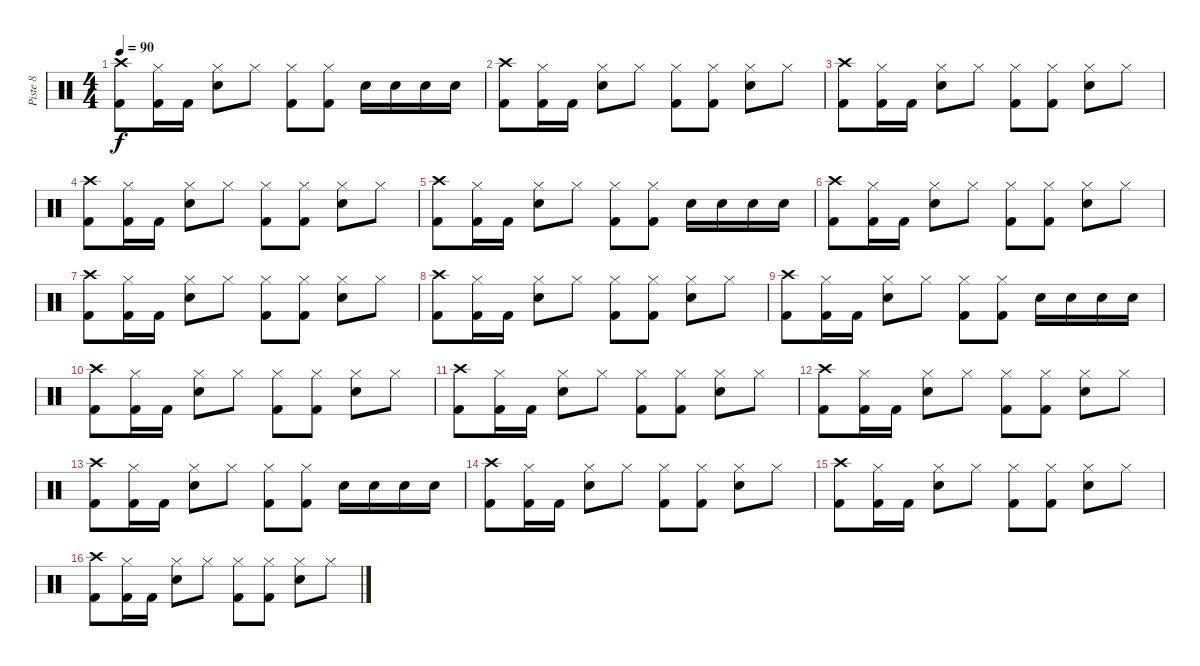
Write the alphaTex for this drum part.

\track ("Piste 8" "Piste 8") {instrument percussion}
\staff {score}
\articulation defaults
\ts (4 4)
\tempo 90
\clef neutral
\ks c
("Crash high (hit)" "Kick (hit) 2").8{dy f} ("Hi-Hat (closed)" "Kick (hit) 2").16 "Kick (hit) 2".16 ("Hi-Hat (closed)" "Snare (hit) 2").8 "Hi-Hat (closed)".8 ("Hi-Hat (closed)" "Kick (hit) 2").8 ("Hi-Hat (closed)" "Kick (hit) 2").8 "Snare (hit) 2".16 "Snare (hit) 2".16 "Snare (hit) 2".16 "Snare (hit) 2".16 |
("Crash high (hit)" "Kick (hit) 2").8 ("Hi-Hat (closed)" "Kick (hit) 2").16 "Kick (hit) 2".16 ("Hi-Hat (closed)" "Snare (hit) 2").8 "Hi-Hat (closed)".8 ("Hi-Hat (closed)" "Kick (hit) 2").8 ("Hi-Hat (closed)" "Kick (hit) 2").8 ("Hi-Hat (closed)" "Snare (hit) 2").8 "Hi-Hat (closed)".8 |
("Crash high (hit)" "Kick (hit) 2").8 ("Hi-Hat (closed)" "Kick (hit) 2").16 "Kick (hit) 2".16 ("Hi-Hat (closed)" "Snare (hit) 2").8 "Hi-Hat (closed)".8 ("Hi-Hat (closed)" "Kick (hit) 2").8 ("Hi-Hat (closed)" "Kick (hit) 2").8 ("Hi-Hat (closed)" "Snare (hit) 2").8 "Hi-Hat (closed)".8 |
("Crash high (hit)" "Kick (hit) 2").8 ("Hi-Hat (closed)" "Kick (hit) 2").16 "Kick (hit) 2".16 ("Hi-Hat (closed)" "Snare (hit) 2").8 "Hi-Hat (closed)".8 ("Hi-Hat (closed)" "Kick (hit) 2").8 ("Hi-Hat (closed)" "Kick (hit) 2").8 ("Hi-Hat (closed)" "Snare (hit) 2").8 "Hi-Hat (closed)".8 |
("Crash high (hit)" "Kick (hit) 2").8 ("Hi-Hat (closed)" "Kick (hit) 2").16 "Kick (hit) 2".16 ("Hi-Hat (closed)" "Snare (hit) 2").8 "Hi-Hat (closed)".8 ("Hi-Hat (closed)" "Kick (hit) 2").8 ("Hi-Hat (closed)" "Kick (hit) 2").8 "Snare (hit) 2".16 "Snare (hit) 2".16 "Snare (hit) 2".16 "Snare (hit) 2".16 |
("Crash high (hit)" "Kick (hit) 2").8 ("Hi-Hat (closed)" "Kick (hit) 2").16 "Kick (hit) 2".16 ("Hi-Hat (closed)" "Snare (hit) 2").8 "Hi-Hat (closed)".8 ("Hi-Hat (closed)" "Kick (hit) 2").8 ("Hi-Hat (closed)" "Kick (hit) 2").8 ("Hi-Hat (closed)" "Snare (hit) 2").8 "Hi-Hat (closed)".8 |
("Crash high (hit)" "Kick (hit) 2").8 ("Hi-Hat (closed)" "Kick (hit) 2").16 "Kick (hit) 2".16 ("Hi-Hat (closed)" "Snare (hit) 2").8 "Hi-Hat (closed)".8 ("Hi-Hat (closed)" "Kick (hit) 2").8 ("Hi-Hat (closed)" "Kick (hit) 2").8 ("Hi-Hat (closed)" "Snare (hit) 2").8 "Hi-Hat (closed)".8 |
("Crash high (hit)" "Kick (hit) 2").8 ("Hi-Hat (closed)" "Kick (hit) 2").16 "Kick (hit) 2".16 ("Hi-Hat (closed)" "Snare (hit) 2").8 "Hi-Hat (closed)".8 ("Hi-Hat (closed)" "Kick (hit) 2").8 ("Hi-Hat (closed)" "Kick (hit) 2").8 ("Hi-Hat (closed)" "Snare (hit) 2").8 "Hi-Hat (closed)".8 |
("Crash high (hit)" "Kick (hit) 2").8 ("Hi-Hat (closed)" "Kick (hit) 2").16 "Kick (hit) 2".16 ("Hi-Hat (closed)" "Snare (hit) 2").8 "Hi-Hat (closed)".8 ("Hi-Hat (closed)" "Kick (hit) 2").8 ("Hi-Hat (closed)" "Kick (hit) 2").8 "Snare (hit) 2".16 "Snare (hit) 2".16 "Snare (hit) 2".16 "Snare (hit) 2".16 |
("Crash high (hit)" "Kick (hit) 2").8 ("Hi-Hat (closed)" "Kick (hit) 2").16 "Kick (hit) 2".16 ("Hi-Hat (closed)" "Snare (hit) 2").8 "Hi-Hat (closed)".8 ("Hi-Hat (closed)" "Kick (hit) 2").8 ("Hi-Hat (closed)" "Kick (hit) 2").8 ("Hi-Hat (closed)" "Snare (hit) 2").8 "Hi-Hat (closed)".8 |
("Crash high (hit)" "Kick (hit) 2").8 ("Hi-Hat (closed)" "Kick (hit) 2").16 "Kick (hit) 2".16 ("Hi-Hat (closed)" "Snare (hit) 2").8 "Hi-Hat (closed)".8 ("Hi-Hat (closed)" "Kick (hit) 2").8 ("Hi-Hat (closed)" "Kick (hit) 2").8 ("Hi-Hat (closed)" "Snare (hit) 2").8 "Hi-Hat (closed)".8 |
("Crash high (hit)" "Kick (hit) 2").8 ("Hi-Hat (closed)" "Kick (hit) 2").16 "Kick (hit) 2".16 ("Hi-Hat (closed)" "Snare (hit) 2").8 "Hi-Hat (closed)".8 ("Hi-Hat (closed)" "Kick (hit) 2").8 ("Hi-Hat (closed)" "Kick (hit) 2").8 ("Hi-Hat (closed)" "Snare (hit) 2").8 "Hi-Hat (closed)".8 |
("Crash high (hit)" "Kick (hit) 2").8 ("Hi-Hat (closed)" "Kick (hit) 2").16 "Kick (hit) 2".16 ("Hi-Hat (closed)" "Snare (hit) 2").8 "Hi-Hat (closed)".8 ("Hi-Hat (closed)" "Kick (hit) 2").8 ("Hi-Hat (closed)" "Kick (hit) 2").8 "Snare (hit) 2".16 "Snare (hit) 2".16 "Snare (hit) 2".16 "Snare (hit) 2".16 |
("Crash high (hit)" "Kick (hit) 2").8 ("Hi-Hat (closed)" "Kick (hit) 2").16 "Kick (hit) 2".16 ("Hi-Hat (closed)" "Snare (hit) 2").8 "Hi-Hat (closed)".8 ("Hi-Hat (closed)" "Kick (hit) 2").8 ("Hi-Hat (closed)" "Kick (hit) 2").8 ("Hi-Hat (closed)" "Snare (hit) 2").8 "Hi-Hat (closed)".8 |
("Crash high (hit)" "Kick (hit) 2").8 ("Hi-Hat (closed)" "Kick (hit) 2").16 "Kick (hit) 2".16 ("Hi-Hat (closed)" "Snare (hit) 2").8 "Hi-Hat (closed)".8 ("Hi-Hat (closed)" "Kick (hit) 2").8 ("Hi-Hat (closed)" "Kick (hit) 2").8 ("Hi-Hat (closed)" "Snare (hit) 2").8 "Hi-Hat (closed)".8 |
("Crash high (hit)" "Kick (hit) 2").8 ("Hi-Hat (closed)" "Kick (hit) 2").16 "Kick (hit) 2".16 ("Hi-Hat (closed)" "Snare (hit) 2").8 "Hi-Hat (closed)".8 ("Hi-Hat (closed)" "Kick (hit) 2").8 ("Hi-Hat (closed)" "Kick (hit) 2").8 ("Hi-Hat (closed)" "Snare (hit) 2").8 "Hi-Hat (closed)".8
